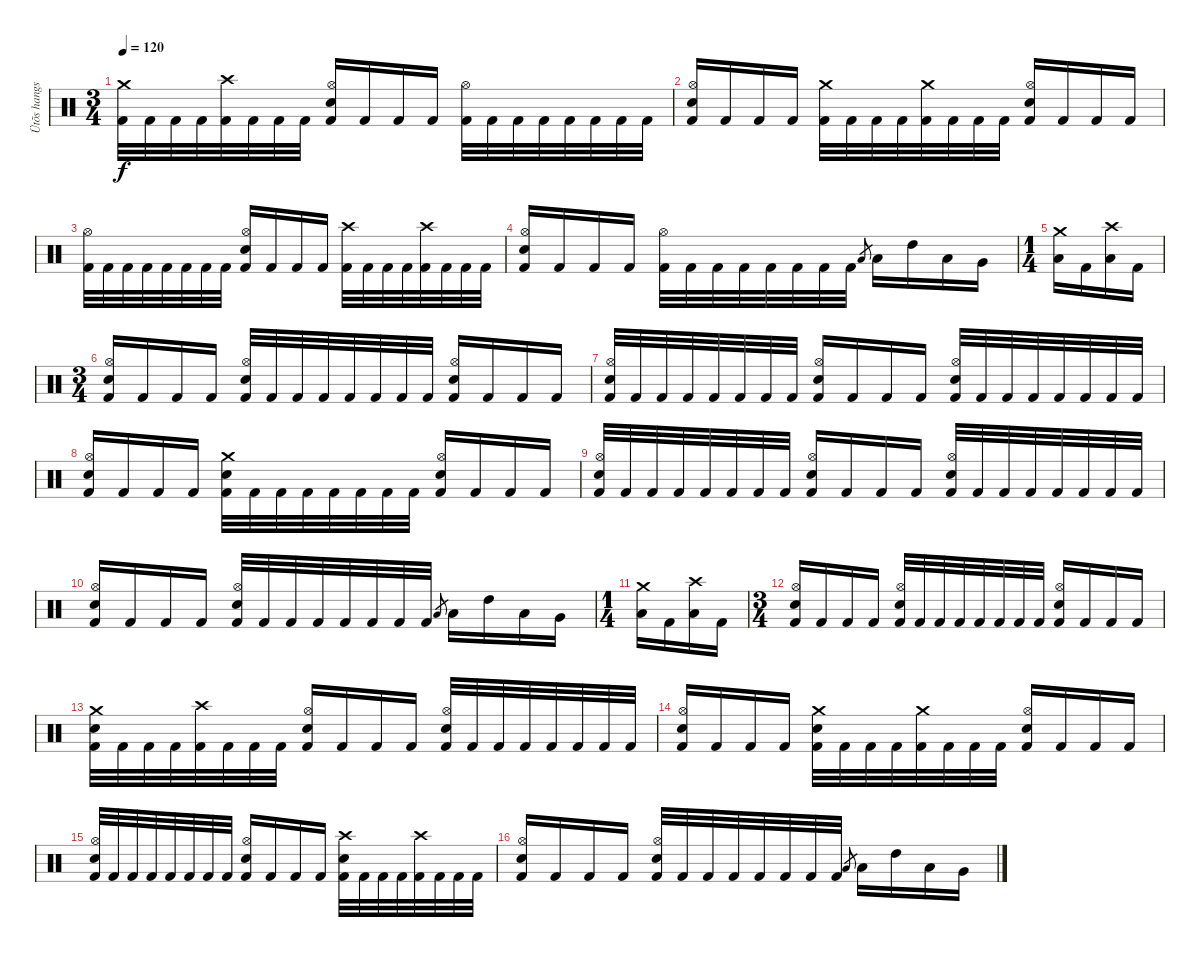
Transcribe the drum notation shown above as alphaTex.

\track ("Ütõs hangszer" "Ütõs hangs") {instrument percussion}
\staff {score}
\articulation defaults
\ts (3 4)
\tempo 120
\clef neutral
\ks c
("Crash medium (hit)" "Kick (hit) 2").32{dy f} "Kick (hit) 2".32 "Kick (hit) 2".32 "Kick (hit) 2".32 ("Crash high (hit)" "Kick (hit) 2").32 "Kick (hit) 2".32 "Kick (hit) 2".32 "Kick (hit) 2".32 ("Hi-Hat (open)" "Electric Snare (hit)" "Kick (hit) 2").16 "Kick (hit) 2".16 "Kick (hit) 2".16 "Kick (hit) 2".16 ("Hi-Hat (open)" "Kick (hit) 2").32 "Kick (hit) 2".32 "Kick (hit) 2".32 "Kick (hit) 2".32 "Kick (hit) 2".32 "Kick (hit) 2".32 "Kick (hit) 2".32 "Kick (hit) 2".32 |
("Hi-Hat (open)" "Electric Snare (hit)" "Kick (hit) 2").16 "Kick (hit) 2".16 "Kick (hit) 2".16 "Kick (hit) 2".16 ("Crash medium (hit)" "Kick (hit) 2").32 "Kick (hit) 2".32 "Kick (hit) 2".32 "Kick (hit) 2".32 ("Crash medium (hit)" "Kick (hit) 2").32 "Kick (hit) 2".32 "Kick (hit) 2".32 "Kick (hit) 2".32 ("Hi-Hat (open)" "Electric Snare (hit)" "Kick (hit) 2").16 "Kick (hit) 2".16 "Kick (hit) 2".16 "Kick (hit) 2".16 |
("Hi-Hat (open)" "Kick (hit) 2").32 "Kick (hit) 2".32 "Kick (hit) 2".32 "Kick (hit) 2".32 "Kick (hit) 2".32 "Kick (hit) 2".32 "Kick (hit) 2".32 "Kick (hit) 2".32 ("Hi-Hat (open)" "Electric Snare (hit)" "Kick (hit) 2").16 "Kick (hit) 2".16 "Kick (hit) 2".16 "Kick (hit) 2".16 ("Crash high (hit)" "Kick (hit) 2").32 "Kick (hit) 2".32 "Kick (hit) 2".32 "Kick (hit) 2".32 ("Crash high (hit)" "Kick (hit) 2").32 "Kick (hit) 2".32 "Kick (hit) 2".32 "Kick (hit) 2".32 |
("Hi-Hat (open)" "Electric Snare (hit)" "Kick (hit) 2").16 "Kick (hit) 2".16 "Kick (hit) 2".16 "Kick (hit) 2".16 ("Hi-Hat (open)" "Kick (hit) 2").32 "Kick (hit) 2".32 "Kick (hit) 2".32 "Kick (hit) 2".32 "Kick (hit) 2".32 "Kick (hit) 2".32 "Kick (hit) 2".32 "Kick (hit) 2".32 "Low Tom (hit)".8{gr} "Low Tom (hit)".16 "High Tom (hit)".16 "Low Tom (hit)".16 "Very Low Tom (hit)".16 |
\ts (1 4)
("Crash medium (hit)" "Low Floor Tom (hit)").16 "Kick (hit) 2".16 ("Crash high (hit)" "Low Floor Tom (hit)").16 "Kick (hit) 2".16 |
\ts (3 4)
("Hi-Hat (open)" "Electric Snare (hit)" "Kick (hit) 2").16 "Kick (hit) 2".16 "Kick (hit) 2".16 "Kick (hit) 2".16 ("Hi-Hat (open)" "Electric Snare (hit)" "Kick (hit) 2").32 "Kick (hit) 2".32 "Kick (hit) 2".32 "Kick (hit) 2".32 "Kick (hit) 2".32 "Kick (hit) 2".32 "Kick (hit) 2".32 "Kick (hit) 2".32 ("Hi-Hat (open)" "Electric Snare (hit)" "Kick (hit) 2").16 "Kick (hit) 2".16 "Kick (hit) 2".16 "Kick (hit) 2".16 |
("Hi-Hat (open)" "Electric Snare (hit)" "Kick (hit) 2").32 "Kick (hit) 2".32 "Kick (hit) 2".32 "Kick (hit) 2".32 "Kick (hit) 2".32 "Kick (hit) 2".32 "Kick (hit) 2".32 "Kick (hit) 2".32 ("Hi-Hat (open)" "Electric Snare (hit)" "Kick (hit) 2").16 "Kick (hit) 2".16 "Kick (hit) 2".16 "Kick (hit) 2".16 ("Hi-Hat (open)" "Electric Snare (hit)" "Kick (hit) 2").32 "Kick (hit) 2".32 "Kick (hit) 2".32 "Kick (hit) 2".32 "Kick (hit) 2".32 "Kick (hit) 2".32 "Kick (hit) 2".32 "Kick (hit) 2".32 |
("Hi-Hat (open)" "Electric Snare (hit)" "Kick (hit) 2").16 "Kick (hit) 2".16 "Kick (hit) 2".16 "Kick (hit) 2".16 ("Crash medium (hit)" "Electric Snare (hit)" "Kick (hit) 2").32 "Kick (hit) 2".32 "Kick (hit) 2".32 "Kick (hit) 2".32 "Kick (hit) 2".32 "Kick (hit) 2".32 "Kick (hit) 2".32 "Kick (hit) 2".32 ("Hi-Hat (open)" "Electric Snare (hit)" "Kick (hit) 2").16 "Kick (hit) 2".16 "Kick (hit) 2".16 "Kick (hit) 2".16 |
("Hi-Hat (open)" "Electric Snare (hit)" "Kick (hit) 2").32 "Kick (hit) 2".32 "Kick (hit) 2".32 "Kick (hit) 2".32 "Kick (hit) 2".32 "Kick (hit) 2".32 "Kick (hit) 2".32 "Kick (hit) 2".32 ("Hi-Hat (open)" "Electric Snare (hit)" "Kick (hit) 2").16 "Kick (hit) 2".16 "Kick (hit) 2".16 "Kick (hit) 2".16 ("Hi-Hat (open)" "Electric Snare (hit)" "Kick (hit) 2").32 "Kick (hit) 2".32 "Kick (hit) 2".32 "Kick (hit) 2".32 "Kick (hit) 2".32 "Kick (hit) 2".32 "Kick (hit) 2".32 "Kick (hit) 2".32 |
("Hi-Hat (open)" "Electric Snare (hit)" "Kick (hit) 2").16 "Kick (hit) 2".16 "Kick (hit) 2".16 "Kick (hit) 2".16 ("Hi-Hat (open)" "Electric Snare (hit)" "Kick (hit) 2").32 "Kick (hit) 2".32 "Kick (hit) 2".32 "Kick (hit) 2".32 "Kick (hit) 2".32 "Kick (hit) 2".32 "Kick (hit) 2".32 "Kick (hit) 2".32 "Low Tom (hit)".8{gr} "Low Tom (hit)".16 "High Tom (hit)".16 "Low Tom (hit)".16 "Very Low Tom (hit)".16 |
\ts (1 4)
("Crash medium (hit)" "Low Floor Tom (hit)").16 "Kick (hit) 2".16 ("Crash high (hit)" "Low Floor Tom (hit)").16 "Kick (hit) 2".16 |
\ts (3 4)
("Hi-Hat (open)" "Electric Snare (hit)" "Kick (hit) 2").16 "Kick (hit) 2".16 "Kick (hit) 2".16 "Kick (hit) 2".16 ("Hi-Hat (open)" "Electric Snare (hit)" "Kick (hit) 2").32 "Kick (hit) 2".32 "Kick (hit) 2".32 "Kick (hit) 2".32 "Kick (hit) 2".32 "Kick (hit) 2".32 "Kick (hit) 2".32 "Kick (hit) 2".32 ("Hi-Hat (open)" "Electric Snare (hit)" "Kick (hit) 2").16 "Kick (hit) 2".16 "Kick (hit) 2".16 "Kick (hit) 2".16 |
("Crash medium (hit)" "Electric Snare (hit)" "Kick (hit) 2").32 "Kick (hit) 2".32 "Kick (hit) 2".32 "Kick (hit) 2".32 ("Crash high (hit)" "Kick (hit) 2").32 "Kick (hit) 2".32 "Kick (hit) 2".32 "Kick (hit) 2".32 ("Hi-Hat (open)" "Electric Snare (hit)" "Kick (hit) 2").16 "Kick (hit) 2".16 "Kick (hit) 2".16 "Kick (hit) 2".16 ("Hi-Hat (open)" "Electric Snare (hit)" "Kick (hit) 2").32 "Kick (hit) 2".32 "Kick (hit) 2".32 "Kick (hit) 2".32 "Kick (hit) 2".32 "Kick (hit) 2".32 "Kick (hit) 2".32 "Kick (hit) 2".32 |
("Hi-Hat (open)" "Electric Snare (hit)" "Kick (hit) 2").16 "Kick (hit) 2".16 "Kick (hit) 2".16 "Kick (hit) 2".16 ("Crash medium (hit)" "Electric Snare (hit)" "Kick (hit) 2").32 "Kick (hit) 2".32 "Kick (hit) 2".32 "Kick (hit) 2".32 ("Crash medium (hit)" "Kick (hit) 2").32 "Kick (hit) 2".32 "Kick (hit) 2".32 "Kick (hit) 2".32 ("Hi-Hat (open)" "Electric Snare (hit)" "Kick (hit) 2").16 "Kick (hit) 2".16 "Kick (hit) 2".16 "Kick (hit) 2".16 |
("Hi-Hat (open)" "Electric Snare (hit)" "Kick (hit) 2").32 "Kick (hit) 2".32 "Kick (hit) 2".32 "Kick (hit) 2".32 "Kick (hit) 2".32 "Kick (hit) 2".32 "Kick (hit) 2".32 "Kick (hit) 2".32 ("Hi-Hat (open)" "Electric Snare (hit)" "Kick (hit) 2").16 "Kick (hit) 2".16 "Kick (hit) 2".16 "Kick (hit) 2".16 ("Crash high (hit)" "Electric Snare (hit)" "Kick (hit) 2").32 "Kick (hit) 2".32 "Kick (hit) 2".32 "Kick (hit) 2".32 ("Crash high (hit)" "Kick (hit) 2").32 "Kick (hit) 2".32 "Kick (hit) 2".32 "Kick (hit) 2".32 |
("Hi-Hat (open)" "Electric Snare (hit)" "Kick (hit) 2").16 "Kick (hit) 2".16 "Kick (hit) 2".16 "Kick (hit) 2".16 ("Hi-Hat (open)" "Electric Snare (hit)" "Kick (hit) 2").32 "Kick (hit) 2".32 "Kick (hit) 2".32 "Kick (hit) 2".32 "Kick (hit) 2".32 "Kick (hit) 2".32 "Kick (hit) 2".32 "Kick (hit) 2".32 "Low Tom (hit)".8{gr} "Low Tom (hit)".16 "High Tom (hit)".16 "Low Tom (hit)".16 "Very Low Tom (hit)".16
